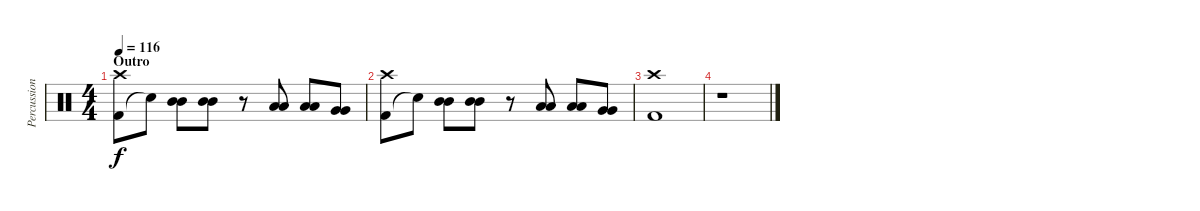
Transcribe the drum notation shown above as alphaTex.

\track ("Percussion" "Percussion") {instrument percussion}
\staff {score}
\articulation defaults
\ts (4 4)
\section ("" "Outro")
\tempo 116
\clef neutral
\ks c
("Kick (hit) 2" "Crash high (hit)").8{dy f} "Snare (hit)"{t}.8 ("Mid Tom (hit)" "Mid Tom (hit)").8 ("Mid Tom (hit)" "Mid Tom (hit)").8 r.8 ("Low Tom (hit)" "Low Tom (hit)").8 ("Low Tom (hit)" "Low Tom (hit)").8 ("Very Low Tom (hit)" "Very Low Tom (hit)").8 |
("Kick (hit) 2" "Crash high (hit)").8 "Snare (hit)"{t}.8 ("Mid Tom (hit)" "Mid Tom (hit)").8 ("Mid Tom (hit)" "Mid Tom (hit)").8 r.8 ("Low Tom (hit)" "Low Tom (hit)").8 ("Low Tom (hit)" "Low Tom (hit)").8 ("Very Low Tom (hit)" "Very Low Tom (hit)").8 |
("Kick (hit) 2" "Crash high (hit)").1 |
r.1
